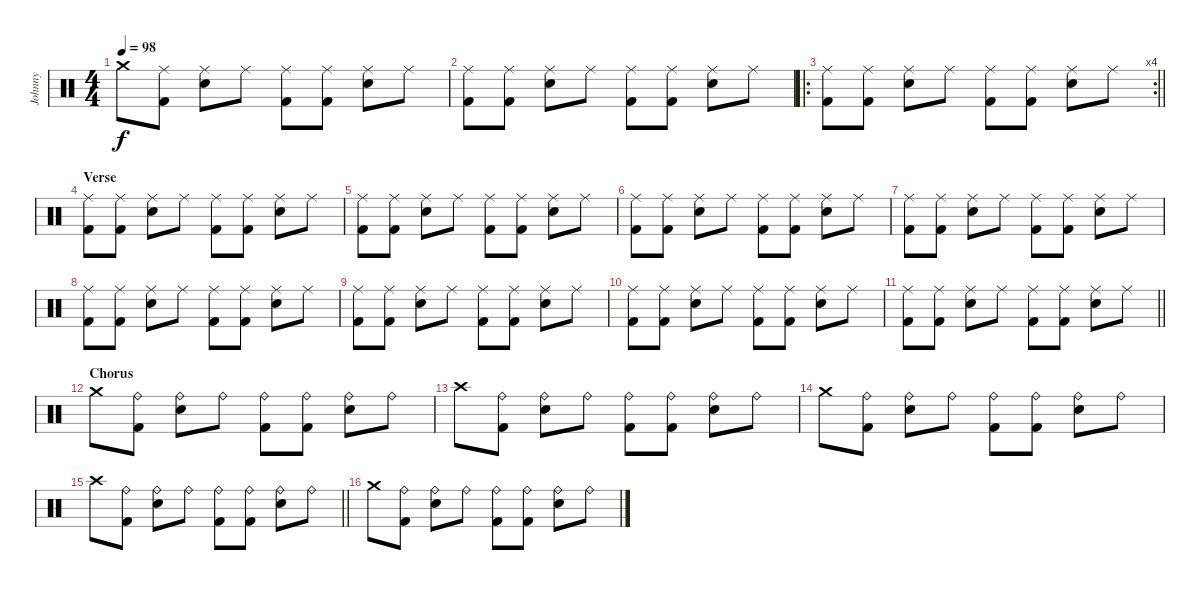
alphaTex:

\track ("Johnny" "Johnny") {instrument percussion}
\staff {score}
\articulation defaults
\ts (4 4)
\tempo 98
\clef neutral
\ks c "Crash medium (hit)".8{dy f}
("Kick (hit) 2" "Ride (middle)").8 ("Electric Snare (hit)" "Ride (middle)").8 "Ride (middle)".8 ("Kick (hit) 2" "Ride (middle)").8 ("Kick (hit) 2" "Ride (middle)").8 ("Electric Snare (hit)" "Ride (middle)").8 "Ride (middle)".8 |
("Kick (hit) 2" "Ride (middle)").8 ("Kick (hit) 2" "Ride (middle)").8 ("Electric Snare (hit)" "Ride (middle)").8 "Ride (middle)".8 ("Kick (hit) 2" "Ride (middle)").8 ("Kick (hit) 2" "Ride (middle)").8 ("Electric Snare (hit)" "Ride (middle)").8 "Ride (middle)".8 |
\ro
\rc 4
\barLineRight lightlight
("Kick (hit) 2" "Ride (middle)").8 ("Kick (hit) 2" "Ride (middle)").8 ("Electric Snare (hit)" "Ride (middle)").8 "Ride (middle)".8 ("Kick (hit) 2" "Ride (middle)").8 ("Kick (hit) 2" "Ride (middle)").8 ("Electric Snare (hit)" "Ride (middle)").8 "Ride (middle)".8 |
\section ("" "Verse")
("Kick (hit) 2" "Ride (middle)").8 ("Kick (hit) 2" "Ride (middle)").8 ("Electric Snare (hit)" "Ride (middle)").8 "Ride (middle)".8 ("Kick (hit) 2" "Ride (middle)").8 ("Kick (hit) 2" "Ride (middle)").8 ("Electric Snare (hit)" "Ride (middle)").8 "Ride (middle)".8 |
("Kick (hit) 2" "Ride (middle)").8 ("Kick (hit) 2" "Ride (middle)").8 ("Electric Snare (hit)" "Ride (middle)").8 "Ride (middle)".8 ("Kick (hit) 2" "Ride (middle)").8 ("Kick (hit) 2" "Ride (middle)").8 ("Electric Snare (hit)" "Ride (middle)").8 "Ride (middle)".8 |
("Kick (hit) 2" "Ride (middle)").8 ("Kick (hit) 2" "Ride (middle)").8 ("Electric Snare (hit)" "Ride (middle)").8 "Ride (middle)".8 ("Kick (hit) 2" "Ride (middle)").8 ("Kick (hit) 2" "Ride (middle)").8 ("Electric Snare (hit)" "Ride (middle)").8 "Ride (middle)".8 |
("Kick (hit) 2" "Ride (middle)").8 ("Kick (hit) 2" "Ride (middle)").8 ("Electric Snare (hit)" "Ride (middle)").8 "Ride (middle)".8 ("Kick (hit) 2" "Ride (middle)").8 ("Kick (hit) 2" "Ride (middle)").8 ("Electric Snare (hit)" "Ride (middle)").8 "Ride (middle)".8 |
("Kick (hit) 2" "Ride (middle)").8 ("Kick (hit) 2" "Ride (middle)").8 ("Electric Snare (hit)" "Ride (middle)").8 "Ride (middle)".8 ("Kick (hit) 2" "Ride (middle)").8 ("Kick (hit) 2" "Ride (middle)").8 ("Electric Snare (hit)" "Ride (middle)").8 "Ride (middle)".8 |
("Kick (hit) 2" "Ride (middle)").8 ("Kick (hit) 2" "Ride (middle)").8 ("Electric Snare (hit)" "Ride (middle)").8 "Ride (middle)".8 ("Kick (hit) 2" "Ride (middle)").8 ("Kick (hit) 2" "Ride (middle)").8 ("Electric Snare (hit)" "Ride (middle)").8 "Ride (middle)".8 |
("Kick (hit) 2" "Ride (middle)").8 ("Kick (hit) 2" "Ride (middle)").8 ("Electric Snare (hit)" "Ride (middle)").8 "Ride (middle)".8 ("Kick (hit) 2" "Ride (middle)").8 ("Kick (hit) 2" "Ride (middle)").8 ("Electric Snare (hit)" "Ride (middle)").8 "Ride (middle)".8 |
\barLineRight lightlight
("Kick (hit) 2" "Ride (middle)").8 ("Kick (hit) 2" "Ride (middle)").8 ("Electric Snare (hit)" "Ride (middle)").8 "Ride (middle)".8 ("Kick (hit) 2" "Ride (middle)").8 ("Kick (hit) 2" "Ride (middle)").8 ("Electric Snare (hit)" "Ride (middle)").8 "Ride (middle)".8 |
\section ("" "Chorus")
"Crash medium (hit)".8 ("Kick (hit) 2" "Ride (bell)").8 ("Electric Snare (hit)" "Ride (bell)").8 "Ride (bell)".8 ("Kick (hit) 2" "Ride (bell)").8 ("Kick (hit) 2" "Ride (bell)").8 ("Electric Snare (hit)" "Ride (bell)").8 "Ride (bell)".8 |
"Crash high (hit)".8 ("Kick (hit) 2" "Ride (bell)").8 ("Electric Snare (hit)" "Ride (bell)").8 "Ride (bell)".8 ("Kick (hit) 2" "Ride (bell)").8 ("Kick (hit) 2" "Ride (bell)").8 ("Electric Snare (hit)" "Ride (bell)").8 "Ride (bell)".8 |
"Crash medium (hit)".8 ("Kick (hit) 2" "Ride (bell)").8 ("Electric Snare (hit)" "Ride (bell)").8 "Ride (bell)".8 ("Kick (hit) 2" "Ride (bell)").8 ("Kick (hit) 2" "Ride (bell)").8 ("Electric Snare (hit)" "Ride (bell)").8 "Ride (bell)".8 |
\barLineRight lightlight "Crash high (hit)".8
("Kick (hit) 2" "Ride (bell)").8 ("Electric Snare (hit)" "Ride (bell)").8 "Ride (bell)".8 ("Kick (hit) 2" "Ride (bell)").8 ("Kick (hit) 2" "Ride (bell)").8 ("Electric Snare (hit)" "Ride (bell)").8 "Ride (bell)".8 |
"Crash medium (hit)".8 ("Kick (hit) 2" "Ride (bell)").8 ("Electric Snare (hit)" "Ride (bell)").8 "Ride (bell)".8 ("Kick (hit) 2" "Ride (bell)").8 ("Kick (hit) 2" "Ride (bell)").8 ("Electric Snare (hit)" "Ride (bell)").8 "Ride (bell)".8
